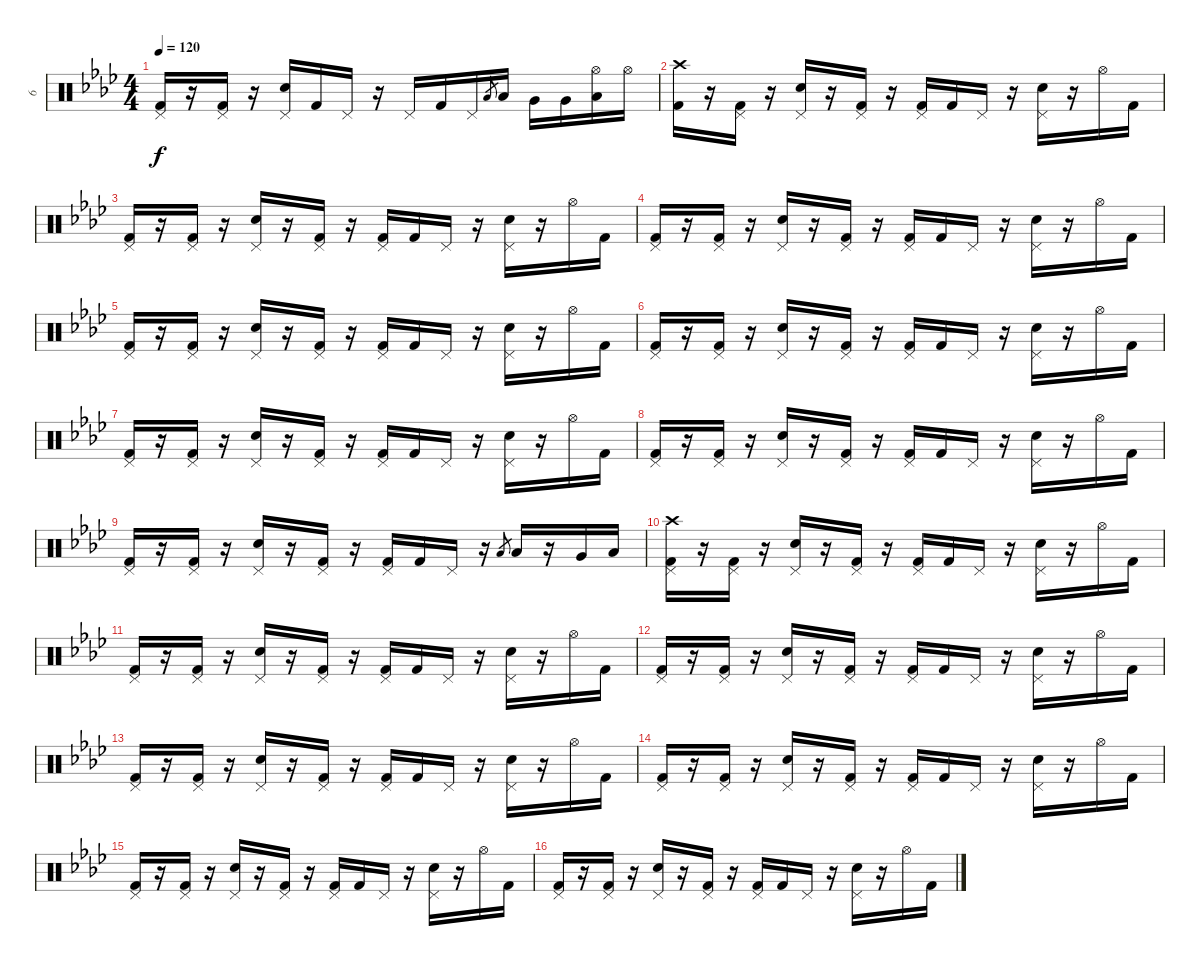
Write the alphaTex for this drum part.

\track ("6" "6") {instrument percussion}
\staff {score}
\articulation defaults
\ts (4 4)
\tempo 120
\clef neutral
\ks fminor
("Pedal Hi-Hat (hit)" "Kick (hit) 2").16{dy f} r.16 ("Pedal Hi-Hat (hit)" "Kick (hit) 2").16 r.16 ("Pedal Hi-Hat (hit)" "Electric Snare (hit)").16 "Kick (hit) 2".16 "Pedal Hi-Hat (hit)".16 r.16 "Pedal Hi-Hat (hit)".16 "Kick (hit) 2".16 "Pedal Hi-Hat (hit)".16 "Low Floor Tom (hit)".8{gr} "Low Tom (hit)".16 "Very Low Tom (hit)".16 "Very Low Tom (hit)".16 ("Hi-Hat (open)" "Low Floor Tom (hit)").16 "Hi-Hat (open)".16 |
("Crash high (hit)" "Kick (hit) 2").16 r.16 ("Pedal Hi-Hat (hit)" "Kick (hit) 2").16 r.16 ("Pedal Hi-Hat (hit)" "Electric Snare (hit)").16 r.16 ("Pedal Hi-Hat (hit)" "Kick (hit) 2").16 r.16 ("Pedal Hi-Hat (hit)" "Kick (hit) 2").16 "Kick (hit) 2".16 "Pedal Hi-Hat (hit)".16 r.16 ("Pedal Hi-Hat (hit)" "Electric Snare (hit)").16 r.16 "Hi-Hat (open)".16 "Kick (hit) 2".16 |
("Pedal Hi-Hat (hit)" "Kick (hit) 2").16 r.16 ("Pedal Hi-Hat (hit)" "Kick (hit) 2").16 r.16 ("Pedal Hi-Hat (hit)" "Electric Snare (hit)").16 r.16 ("Pedal Hi-Hat (hit)" "Kick (hit) 2").16 r.16 ("Pedal Hi-Hat (hit)" "Kick (hit) 2").16 "Kick (hit) 2".16 "Pedal Hi-Hat (hit)".16 r.16 ("Pedal Hi-Hat (hit)" "Electric Snare (hit)").16 r.16 "Hi-Hat (open)".16 "Kick (hit) 2".16 |
("Pedal Hi-Hat (hit)" "Kick (hit) 2").16 r.16 ("Pedal Hi-Hat (hit)" "Kick (hit) 2").16 r.16 ("Pedal Hi-Hat (hit)" "Electric Snare (hit)").16 r.16 ("Pedal Hi-Hat (hit)" "Kick (hit) 2").16 r.16 ("Pedal Hi-Hat (hit)" "Kick (hit) 2").16 "Kick (hit) 2".16 "Pedal Hi-Hat (hit)".16 r.16 ("Pedal Hi-Hat (hit)" "Electric Snare (hit)").16 r.16 "Hi-Hat (open)".16 "Kick (hit) 2".16 |
("Pedal Hi-Hat (hit)" "Kick (hit) 2").16 r.16 ("Pedal Hi-Hat (hit)" "Kick (hit) 2").16 r.16 ("Pedal Hi-Hat (hit)" "Electric Snare (hit)").16 r.16 ("Pedal Hi-Hat (hit)" "Kick (hit) 2").16 r.16 ("Pedal Hi-Hat (hit)" "Kick (hit) 2").16 "Kick (hit) 2".16 "Pedal Hi-Hat (hit)".16 r.16 ("Pedal Hi-Hat (hit)" "Electric Snare (hit)").16 r.16 "Hi-Hat (open)".16 "Kick (hit) 2".16 |
("Pedal Hi-Hat (hit)" "Kick (hit) 2").16 r.16 ("Pedal Hi-Hat (hit)" "Kick (hit) 2").16 r.16 ("Pedal Hi-Hat (hit)" "Electric Snare (hit)").16 r.16 ("Pedal Hi-Hat (hit)" "Kick (hit) 2").16 r.16 ("Pedal Hi-Hat (hit)" "Kick (hit) 2").16 "Kick (hit) 2".16 "Pedal Hi-Hat (hit)".16 r.16 ("Pedal Hi-Hat (hit)" "Electric Snare (hit)").16 r.16 "Hi-Hat (open)".16 "Kick (hit) 2".16 |
("Pedal Hi-Hat (hit)" "Kick (hit) 2").16 r.16 ("Pedal Hi-Hat (hit)" "Kick (hit) 2").16 r.16 ("Pedal Hi-Hat (hit)" "Electric Snare (hit)").16 r.16 ("Pedal Hi-Hat (hit)" "Kick (hit) 2").16 r.16 ("Pedal Hi-Hat (hit)" "Kick (hit) 2").16 "Kick (hit) 2".16 "Pedal Hi-Hat (hit)".16 r.16 ("Pedal Hi-Hat (hit)" "Electric Snare (hit)").16 r.16 "Hi-Hat (open)".16 "Kick (hit) 2".16 |
("Pedal Hi-Hat (hit)" "Kick (hit) 2").16 r.16 ("Pedal Hi-Hat (hit)" "Kick (hit) 2").16 r.16 ("Pedal Hi-Hat (hit)" "Electric Snare (hit)").16 r.16 ("Pedal Hi-Hat (hit)" "Kick (hit) 2").16 r.16 ("Pedal Hi-Hat (hit)" "Kick (hit) 2").16 "Kick (hit) 2".16 "Pedal Hi-Hat (hit)".16 r.16 ("Pedal Hi-Hat (hit)" "Electric Snare (hit)").16 r.16 "Hi-Hat (open)".16 "Kick (hit) 2".16 |
("Pedal Hi-Hat (hit)" "Kick (hit) 2").16 r.16 ("Pedal Hi-Hat (hit)" "Kick (hit) 2").16 r.16 ("Pedal Hi-Hat (hit)" "Electric Snare (hit)").16 r.16 ("Pedal Hi-Hat (hit)" "Kick (hit) 2").16 r.16 ("Pedal Hi-Hat (hit)" "Kick (hit) 2").16 "Kick (hit) 2".16 "Pedal Hi-Hat (hit)".16 r.16 "Low Floor Tom (hit)".8{gr} "Low Floor Tom (hit)".16 r.16 "Very Low Tom (hit)".16 "Low Tom (hit)".16 |
("Crash high (hit)" "Pedal Hi-Hat (hit)" "Kick (hit) 2").16 r.16 ("Pedal Hi-Hat (hit)" "Kick (hit) 2").16 r.16 ("Pedal Hi-Hat (hit)" "Electric Snare (hit)").16 r.16 ("Pedal Hi-Hat (hit)" "Kick (hit) 2").16 r.16 ("Pedal Hi-Hat (hit)" "Kick (hit) 2").16 "Kick (hit) 2".16 "Pedal Hi-Hat (hit)".16 r.16 ("Pedal Hi-Hat (hit)" "Electric Snare (hit)").16 r.16 "Hi-Hat (open)".16 "Kick (hit) 2".16 |
("Pedal Hi-Hat (hit)" "Kick (hit) 2").16 r.16 ("Pedal Hi-Hat (hit)" "Kick (hit) 2").16 r.16 ("Pedal Hi-Hat (hit)" "Electric Snare (hit)").16 r.16 ("Pedal Hi-Hat (hit)" "Kick (hit) 2").16 r.16 ("Pedal Hi-Hat (hit)" "Kick (hit) 2").16 "Kick (hit) 2".16 "Pedal Hi-Hat (hit)".16 r.16 ("Pedal Hi-Hat (hit)" "Electric Snare (hit)").16 r.16 "Hi-Hat (open)".16 "Kick (hit) 2".16 |
("Pedal Hi-Hat (hit)" "Kick (hit) 2").16 r.16 ("Pedal Hi-Hat (hit)" "Kick (hit) 2").16 r.16 ("Pedal Hi-Hat (hit)" "Electric Snare (hit)").16 r.16 ("Pedal Hi-Hat (hit)" "Kick (hit) 2").16 r.16 ("Pedal Hi-Hat (hit)" "Kick (hit) 2").16 "Kick (hit) 2".16 "Pedal Hi-Hat (hit)".16 r.16 ("Pedal Hi-Hat (hit)" "Electric Snare (hit)").16 r.16 "Hi-Hat (open)".16 "Kick (hit) 2".16 |
("Pedal Hi-Hat (hit)" "Kick (hit) 2").16 r.16 ("Pedal Hi-Hat (hit)" "Kick (hit) 2").16 r.16 ("Pedal Hi-Hat (hit)" "Electric Snare (hit)").16 r.16 ("Pedal Hi-Hat (hit)" "Kick (hit) 2").16 r.16 ("Pedal Hi-Hat (hit)" "Kick (hit) 2").16 "Kick (hit) 2".16 "Pedal Hi-Hat (hit)".16 r.16 ("Pedal Hi-Hat (hit)" "Electric Snare (hit)").16 r.16 "Hi-Hat (open)".16 "Kick (hit) 2".16 |
("Pedal Hi-Hat (hit)" "Kick (hit) 2").16 r.16 ("Pedal Hi-Hat (hit)" "Kick (hit) 2").16 r.16 ("Pedal Hi-Hat (hit)" "Electric Snare (hit)").16 r.16 ("Pedal Hi-Hat (hit)" "Kick (hit) 2").16 r.16 ("Pedal Hi-Hat (hit)" "Kick (hit) 2").16 "Kick (hit) 2".16 "Pedal Hi-Hat (hit)".16 r.16 ("Pedal Hi-Hat (hit)" "Electric Snare (hit)").16 r.16 "Hi-Hat (open)".16 "Kick (hit) 2".16 |
("Pedal Hi-Hat (hit)" "Kick (hit) 2").16 r.16 ("Pedal Hi-Hat (hit)" "Kick (hit) 2").16 r.16 ("Pedal Hi-Hat (hit)" "Electric Snare (hit)").16 r.16 ("Pedal Hi-Hat (hit)" "Kick (hit) 2").16 r.16 ("Pedal Hi-Hat (hit)" "Kick (hit) 2").16 "Kick (hit) 2".16 "Pedal Hi-Hat (hit)".16 r.16 ("Pedal Hi-Hat (hit)" "Electric Snare (hit)").16 r.16 "Hi-Hat (open)".16 "Kick (hit) 2".16 |
("Pedal Hi-Hat (hit)" "Kick (hit) 2").16 r.16 ("Pedal Hi-Hat (hit)" "Kick (hit) 2").16 r.16 ("Pedal Hi-Hat (hit)" "Electric Snare (hit)").16 r.16 ("Pedal Hi-Hat (hit)" "Kick (hit) 2").16 r.16 ("Pedal Hi-Hat (hit)" "Kick (hit) 2").16 "Kick (hit) 2".16 "Pedal Hi-Hat (hit)".16 r.16 ("Pedal Hi-Hat (hit)" "Electric Snare (hit)").16 r.16 "Hi-Hat (open)".16 "Kick (hit) 2".16
